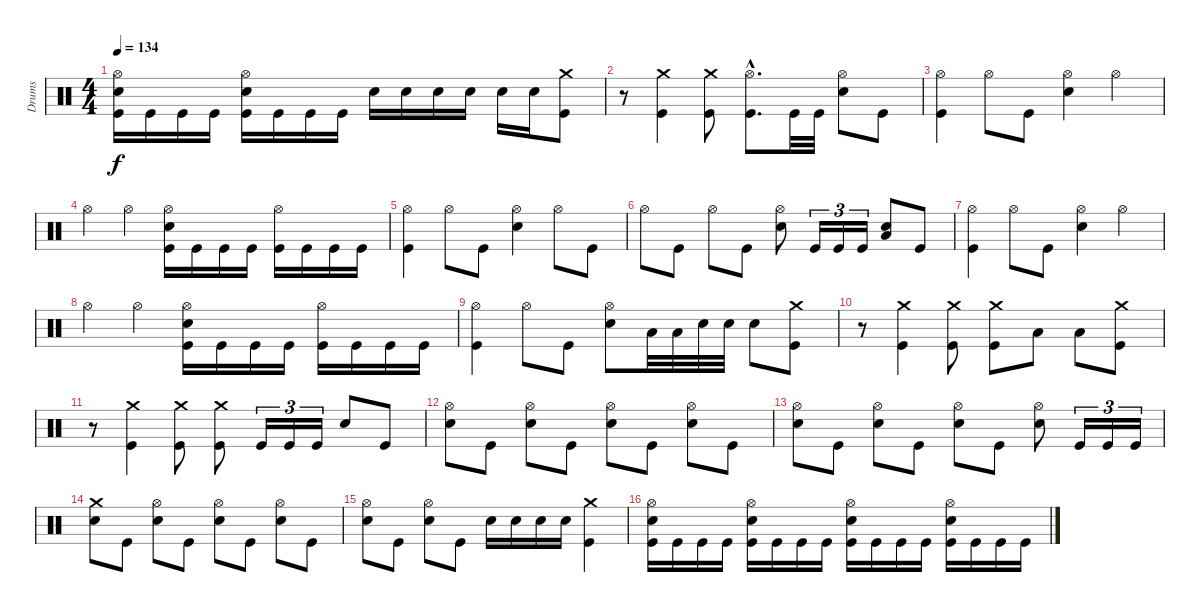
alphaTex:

\track ("Drums" "Drums") {instrument percussion}
\staff {score}
\articulation defaults
\ts (4 4)
\tempo 134
\clef neutral
\ks c
("Hi-Hat (open)" "Electric Snare (hit)" "Kick (hit)").16{dy f} "Kick (hit)".16 "Kick (hit)".16 "Kick (hit)".16 ("Hi-Hat (open)" "Electric Snare (hit)" "Kick (hit)").16 "Kick (hit)".16 "Kick (hit)".16 "Kick (hit)".16 "Electric Snare (hit)".16 "Electric Snare (hit)".16 "Electric Snare (hit)".16 "Electric Snare (hit)".16 "Electric Snare (hit)".16 "Electric Snare (hit)".16 ("Crash medium (hit)" "Kick (hit)").8 |
r.8 ("Crash medium (hit)" "Kick (hit)").4 ("Crash medium (hit)" "Kick (hit)").8 ("Hi-Hat (open)"{hac} "Kick (hit)"{hac}).8{d} "Kick (hit)".32 "Kick (hit)".32 ("Hi-Hat (open)" "Electric Snare (hit)").8 "Kick (hit)".8 |
("Hi-Hat (open)" "Kick (hit)").4 "Hi-Hat (open)".8 "Kick (hit)".8 ("Hi-Hat (open)" "Electric Snare (hit)").4 "Hi-Hat (open)".4 |
"Hi-Hat (open)".4 "Hi-Hat (open)".4 ("Kick (hit)" "Hi-Hat (open)" "Electric Snare (hit)").16 "Kick (hit)".16 "Kick (hit)".16 "Kick (hit)".16 ("Hi-Hat (open)" "Kick (hit)").16 "Kick (hit)".16 "Kick (hit)".16 "Kick (hit)".16 |
("Hi-Hat (open)" "Kick (hit)").4 "Hi-Hat (open)".8 "Kick (hit)".8 ("Hi-Hat (open)" "Electric Snare (hit)").4 "Hi-Hat (open)".8 "Kick (hit)".8 |
"Hi-Hat (open)".8 "Kick (hit)".8 "Hi-Hat (open)".8 "Kick (hit)".8 ("Hi-Hat (open)" "Electric Snare (hit)").8 "Kick (hit)".16{tu (3 2)} "Kick (hit)".16{tu (3 2)} "Kick (hit)".16{tu (3 2)} ("Electric Snare (hit)" "Low Tom (hit)").8 "Kick (hit)".8 |
("Hi-Hat (open)" "Kick (hit)").4 "Hi-Hat (open)".8 "Kick (hit)".8 ("Hi-Hat (open)" "Electric Snare (hit)").4 "Hi-Hat (open)".4 |
"Hi-Hat (open)".4 "Hi-Hat (open)".4 ("Kick (hit)" "Hi-Hat (open)" "Electric Snare (hit)").16 "Kick (hit)".16 "Kick (hit)".16 "Kick (hit)".16 ("Hi-Hat (open)" "Kick (hit)").16 "Kick (hit)".16 "Kick (hit)".16 "Kick (hit)".16 |
("Hi-Hat (open)" "Kick (hit)").4 "Hi-Hat (open)".8 "Kick (hit)".8 ("Hi-Hat (open)" "Electric Snare (hit)").8 "Low Tom (hit)".32 "Low Tom (hit)".32 "Electric Snare (hit)".32 "Electric Snare (hit)".32 "Electric Snare (hit)".8 ("Crash medium (hit)" "Kick (hit)").8 |
r.8 ("Crash medium (hit)" "Kick (hit)").4 ("Crash medium (hit)" "Kick (hit)").8 ("Crash medium (hit)" "Kick (hit)").8 "Low Floor Tom (hit)".8 "Low Floor Tom (hit)".8 ("Crash medium (hit)" "Kick (hit)").8 |
r.8 ("Crash medium (hit)" "Kick (hit)").4 ("Crash medium (hit)" "Kick (hit)").8 ("Crash medium (hit)" "Kick (hit)").8 "Kick (hit)".16{tu (3 2)} "Kick (hit)".16{tu (3 2)} "Kick (hit)".16{tu (3 2)} "Electric Snare (hit)".8 "Kick (hit)".8 |
("Hi-Hat (open)" "Electric Snare (hit)").8 "Kick (hit)".8 ("Hi-Hat (open)" "Electric Snare (hit)").8 "Kick (hit)".8 ("Hi-Hat (open)" "Electric Snare (hit)").8 "Kick (hit)".8 ("Hi-Hat (open)" "Electric Snare (hit)").8 "Kick (hit)".8 |
("Hi-Hat (open)" "Electric Snare (hit)").8 "Kick (hit)".8 ("Hi-Hat (open)" "Electric Snare (hit)").8 "Kick (hit)".8 ("Hi-Hat (open)" "Electric Snare (hit)").8 "Kick (hit)".8 ("Hi-Hat (open)" "Electric Snare (hit)").8 "Kick (hit)".16{tu (3 2)} "Kick (hit)".16{tu (3 2)} "Kick (hit)".16{tu (3 2)} |
("Crash medium (hit)" "Electric Snare (hit)").8 "Kick (hit)".8 ("Hi-Hat (open)" "Electric Snare (hit)").8 "Kick (hit)".8 ("Hi-Hat (open)" "Electric Snare (hit)").8 "Kick (hit)".8 ("Hi-Hat (open)" "Electric Snare (hit)").8 "Kick (hit)".8 |
("Hi-Hat (open)" "Electric Snare (hit)").8 "Kick (hit)".8 ("Hi-Hat (open)" "Electric Snare (hit)").8 "Kick (hit)".8 "Electric Snare (hit)".16 "Electric Snare (hit)".16 "Electric Snare (hit)".16 "Electric Snare (hit)".16 ("Crash medium (hit)" "Kick (hit)").4 |
("Electric Snare (hit)" "Hi-Hat (open)" "Kick (hit)").16 "Kick (hit)".16 "Kick (hit)".16 "Kick (hit)".16 ("Electric Snare (hit)" "Hi-Hat (open)" "Kick (hit)").16 "Kick (hit)".16 "Kick (hit)".16 "Kick (hit)".16 ("Electric Snare (hit)" "Hi-Hat (open)" "Kick (hit)").16 "Kick (hit)".16 "Kick (hit)".16 "Kick (hit)".16 ("Electric Snare (hit)" "Hi-Hat (open)" "Kick (hit)").16 "Kick (hit)".16 "Kick (hit)".16 "Kick (hit)".16
